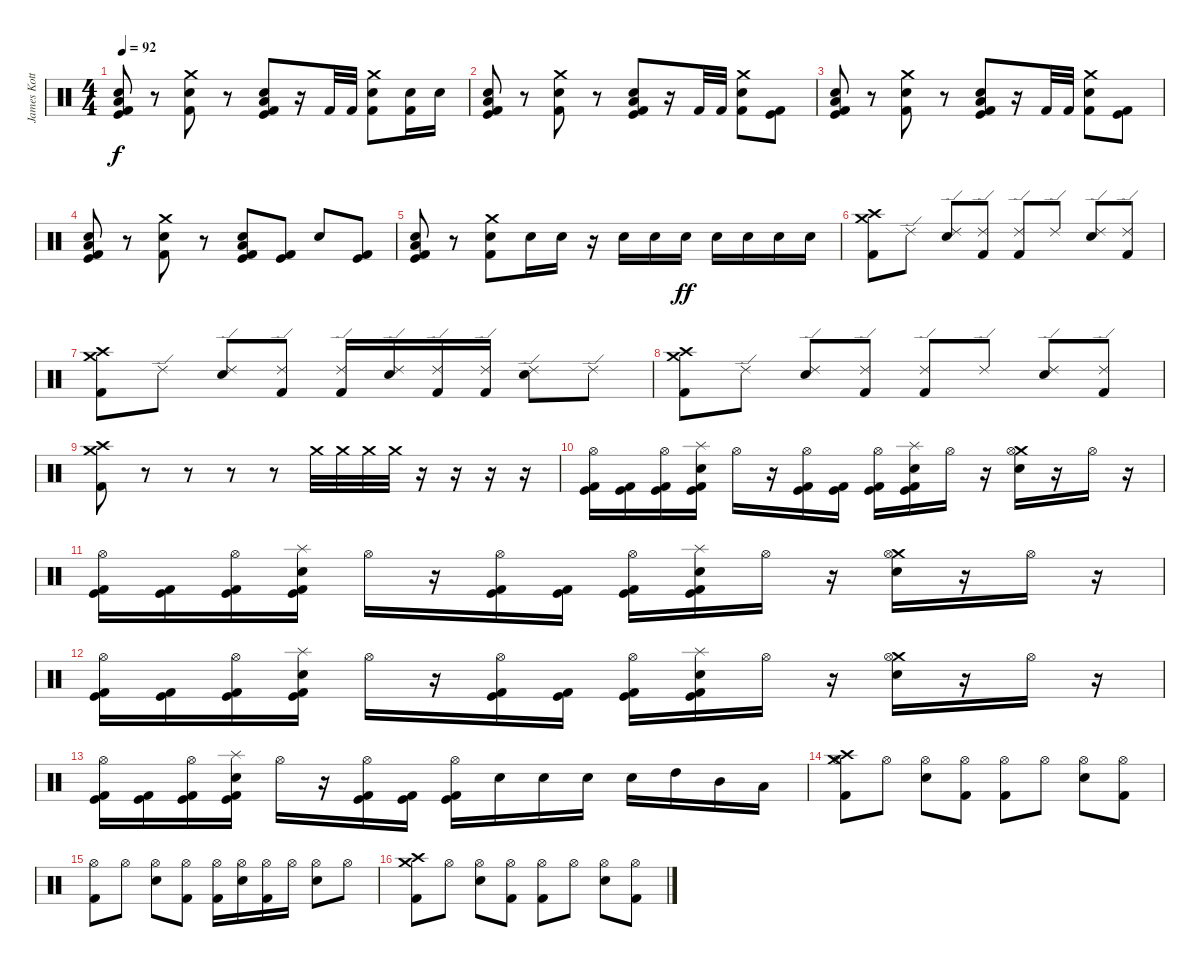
\track ("James Kottak" "James Kott") {instrument percussion}
\staff {score}
\articulation defaults
\ts (4 4)
\tempo 92
\clef neutral
\ks c
("Electric Snare (hit)" "Kick (hit)" "Low Floor Tom (hit)" "Kick (hit) 2").8{dy f} r.8 ("Crash medium (hit)" "Electric Snare (hit)" "Kick (hit) 2").8 r.8 ("Electric Snare (hit)" "Kick (hit)" "Low Floor Tom (hit)" "Kick (hit) 2").8 r.16 "Kick (hit) 2".32 "Kick (hit) 2".32 ("Crash medium (hit)" "Electric Snare (hit)" "Kick (hit) 2").8 ("Electric Snare (hit)" "Kick (hit) 2").16 "Electric Snare (hit)".16 |
("Electric Snare (hit)" "Kick (hit)" "Low Floor Tom (hit)" "Kick (hit) 2").8 r.8 ("Crash medium (hit)" "Electric Snare (hit)" "Kick (hit) 2").8 r.8 ("Electric Snare (hit)" "Kick (hit)" "Low Floor Tom (hit)" "Kick (hit) 2").8 r.16 "Kick (hit) 2".32 "Kick (hit) 2".32 ("Crash medium (hit)" "Electric Snare (hit)" "Kick (hit) 2").8 ("Kick (hit)" "Kick (hit) 2").8 |
("Electric Snare (hit)" "Kick (hit)" "Low Floor Tom (hit)" "Kick (hit) 2").8 r.8 ("Crash medium (hit)" "Electric Snare (hit)" "Kick (hit) 2").8 r.8 ("Electric Snare (hit)" "Kick (hit)" "Low Floor Tom (hit)" "Kick (hit) 2").8 r.16 "Kick (hit) 2".32 "Kick (hit) 2".32 ("Crash medium (hit)" "Electric Snare (hit)" "Kick (hit) 2").8 ("Kick (hit)" "Kick (hit) 2").8 |
("Electric Snare (hit)" "Kick (hit)" "Low Floor Tom (hit)" "Kick (hit) 2").8 r.8 ("Crash medium (hit)" "Electric Snare (hit)" "Kick (hit) 2").8 r.8 ("Electric Snare (hit)" "Kick (hit)" "Low Floor Tom (hit)" "Kick (hit) 2").8 ("Kick (hit) 2" "Kick (hit)").8 "Electric Snare (hit)".8 ("Kick (hit) 2" "Kick (hit)").8 |
("Electric Snare (hit)" "Kick (hit)" "Low Floor Tom (hit)" "Kick (hit) 2").8 r.8 ("Crash medium (hit)" "Electric Snare (hit)" "Kick (hit) 2").8 "Electric Snare (hit)".16 "Electric Snare (hit)".16 r.16 "Electric Snare (hit)".16 "Electric Snare (hit)".16 "Electric Snare (hit)".16{dy ff} "Electric Snare (hit)".16 "Electric Snare (hit)".16 "Electric Snare (hit)".16 "Electric Snare (hit)".16 |
("Crash high (hit)" "Crash medium (hit)" "Kick (hit) 2").8 "Ride (edge) 2".8 ("Ride (edge) 2" "Electric Snare (hit)").8 ("Ride (edge) 2" "Kick (hit) 2").8 ("Ride (edge) 2" "Kick (hit) 2").8 "Ride (edge) 2".8 ("Ride (edge) 2" "Electric Snare (hit)").8 ("Ride (edge) 2" "Kick (hit) 2").8 |
("Crash high (hit)" "Crash medium (hit)" "Kick (hit) 2").8 "Ride (edge) 2".8 ("Ride (edge) 2" "Electric Snare (hit)").8 ("Ride (edge) 2" "Kick (hit) 2").8 ("Ride (edge) 2" "Kick (hit) 2").16 ("Ride (edge) 2" "Electric Snare (hit)").16 ("Ride (edge) 2" "Kick (hit) 2").16 ("Ride (edge) 2" "Kick (hit) 2").16 ("Ride (edge) 2" "Electric Snare (hit)").8 "Ride (edge) 2".8 |
("Crash high (hit)" "Crash medium (hit)" "Kick (hit) 2").8 "Ride (edge) 2".8 ("Ride (edge) 2" "Electric Snare (hit)").8 ("Ride (edge) 2" "Kick (hit) 2").8 ("Ride (edge) 2" "Kick (hit) 2").8 "Ride (edge) 2".8 ("Ride (edge) 2" "Electric Snare (hit)").8 ("Ride (edge) 2" "Kick (hit) 2").8 |
("Crash high (hit)" "Crash medium (hit)" "Kick (hit) 2").8 r.8 r.8 r.8 r.8 "Crash medium (hit)".32 "Crash medium (hit)".32 "Crash medium (hit)".32 "Crash medium (hit)".32 r.16 r.16 r.16 r.16 |
("Hi-Hat (open)" "Kick (hit) 2" "Kick (hit)").16 ("Kick (hit) 2" "Kick (hit)").16 ("Hi-Hat (open)" "Kick (hit)" "Kick (hit) 2").16 ("Splash (hit)" "Electric Snare (hit)" "Kick (hit) 2" "Kick (hit)").16 "Hi-Hat (open)".16 r.16 ("Hi-Hat (open)" "Kick (hit) 2" "Kick (hit)").16 ("Kick (hit) 2" "Kick (hit)").16 ("Hi-Hat (open)" "Kick (hit) 2" "Kick (hit)").16 ("Splash (hit)" "Electric Snare (hit)" "Kick (hit) 2" "Kick (hit)").16 "Hi-Hat (open)".16 r.16 ("Crash medium (hit)" "Hi-Hat (open)" "Electric Snare (hit)").16 r.16 "Hi-Hat (open)".16 r.16 |
("Hi-Hat (open)" "Kick (hit) 2" "Kick (hit)").16 ("Kick (hit) 2" "Kick (hit)").16 ("Hi-Hat (open)" "Kick (hit)" "Kick (hit) 2").16 ("Splash (hit)" "Electric Snare (hit)" "Kick (hit) 2" "Kick (hit)").16 "Hi-Hat (open)".16 r.16 ("Hi-Hat (open)" "Kick (hit) 2" "Kick (hit)").16 ("Kick (hit) 2" "Kick (hit)").16 ("Hi-Hat (open)" "Kick (hit) 2" "Kick (hit)").16 ("Splash (hit)" "Electric Snare (hit)" "Kick (hit) 2" "Kick (hit)").16 "Hi-Hat (open)".16 r.16 ("Crash medium (hit)" "Hi-Hat (open)" "Electric Snare (hit)").16 r.16 "Hi-Hat (open)".16 r.16 |
("Hi-Hat (open)" "Kick (hit) 2" "Kick (hit)").16 ("Kick (hit) 2" "Kick (hit)").16 ("Hi-Hat (open)" "Kick (hit)" "Kick (hit) 2").16 ("Splash (hit)" "Electric Snare (hit)" "Kick (hit) 2" "Kick (hit)").16 "Hi-Hat (open)".16 r.16 ("Hi-Hat (open)" "Kick (hit) 2" "Kick (hit)").16 ("Kick (hit) 2" "Kick (hit)").16 ("Hi-Hat (open)" "Kick (hit) 2" "Kick (hit)").16 ("Splash (hit)" "Electric Snare (hit)" "Kick (hit) 2" "Kick (hit)").16 "Hi-Hat (open)".16 r.16 ("Crash medium (hit)" "Hi-Hat (open)" "Electric Snare (hit)").16 r.16 "Hi-Hat (open)".16 r.16 |
("Hi-Hat (open)" "Kick (hit) 2" "Kick (hit)").16 ("Kick (hit) 2" "Kick (hit)").16 ("Hi-Hat (open)" "Kick (hit) 2" "Kick (hit)").16 ("Splash (hit)" "Electric Snare (hit)" "Kick (hit) 2" "Kick (hit)").16 "Hi-Hat (open)".16 r.16 ("Hi-Hat (open)" "Kick (hit) 2" "Kick (hit)").16 ("Kick (hit) 2" "Kick (hit)").16 ("Hi-Hat (open)" "Kick (hit) 2" "Kick (hit)").16 "Electric Snare (hit)".16 "Electric Snare (hit)".16 "Electric Snare (hit)".16 "Electric Snare (hit)".16 "High Tom (hit)".16 "Mid Tom (hit)".16 "Low Tom (hit)".16 |
("Crash high (hit)" "Hi-Hat (open)" "Crash medium (hit)" "Kick (hit) 2").8 "Hi-Hat (open)".8 ("Hi-Hat (open)" "Electric Snare (hit)").8 ("Hi-Hat (open)" "Kick (hit) 2").8 ("Hi-Hat (open)" "Kick (hit) 2").8 "Hi-Hat (open)".8 ("Hi-Hat (open)" "Electric Snare (hit)").8 ("Hi-Hat (open)" "Kick (hit) 2").8 |
("Hi-Hat (open)" "Kick (hit) 2").8 "Hi-Hat (open)".8 ("Hi-Hat (open)" "Electric Snare (hit)").8 ("Hi-Hat (open)" "Kick (hit) 2").8 ("Hi-Hat (open)" "Kick (hit) 2").16 ("Hi-Hat (open)" "Electric Snare (hit)").16 ("Hi-Hat (open)" "Kick (hit) 2").16 "Hi-Hat (open)".16 ("Hi-Hat (open)" "Electric Snare (hit)").8 "Hi-Hat (open)".8 |
("Crash high (hit)" "Crash medium (hit)" "Kick (hit) 2").8 "Hi-Hat (open)".8 ("Hi-Hat (open)" "Electric Snare (hit)").8 ("Hi-Hat (open)" "Kick (hit) 2").8 ("Hi-Hat (open)" "Kick (hit) 2").8 "Hi-Hat (open)".8 ("Hi-Hat (open)" "Electric Snare (hit)").8 ("Hi-Hat (open)" "Kick (hit) 2").8
